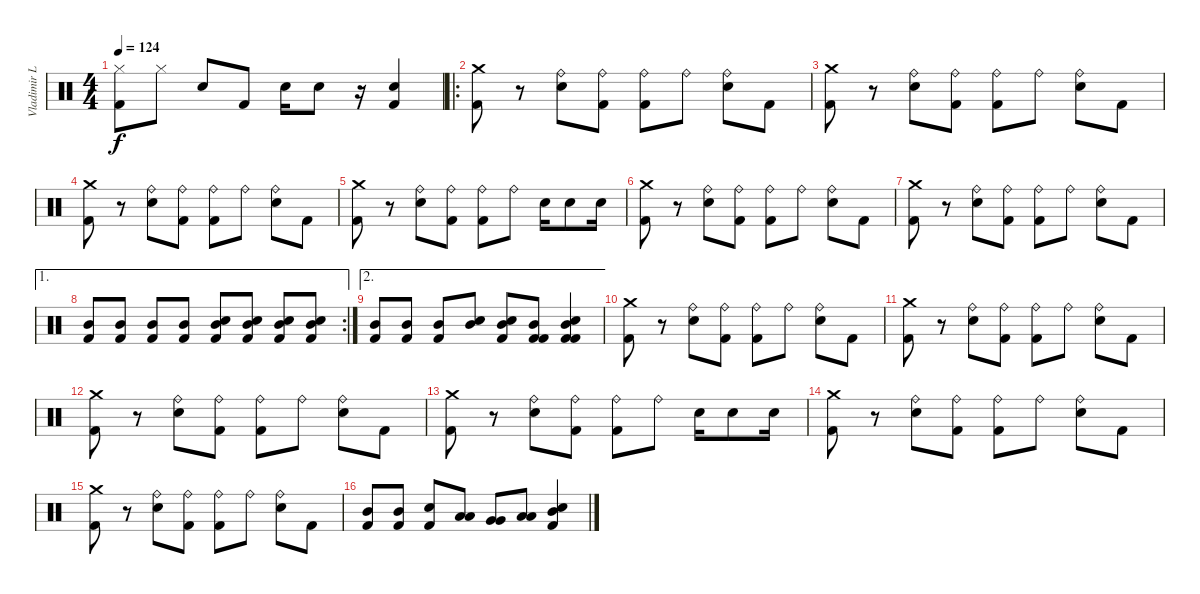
\track ("Vladimir L." "Vladimir L") {instrument percussion}
\staff {score}
\articulation defaults
\ts (4 4)
\tempo 124
\clef neutral
\ks c
("Kick (hit) 2" "Hi-Hat (closed)").8{dy f} "Hi-Hat (closed)".8 "Electric Snare (hit)".8 "Kick (hit) 2".8 "Electric Snare (hit)".16 "Electric Snare (hit)".8 r.16 ("Electric Snare (hit)" "Kick (hit) 2").4 |
\ro
("Kick (hit) 2" "Crash medium (hit)").8 r.8 ("Electric Snare (hit)" "Ride (bell)").8 ("Kick (hit) 2" "Ride (bell)").8 ("Kick (hit) 2" "Ride (bell)").8 "Ride (bell)".8 ("Electric Snare (hit)" "Ride (bell)").8 "Kick (hit) 2".8 |
("Kick (hit) 2" "Crash medium (hit)").8 r.8 ("Electric Snare (hit)" "Ride (bell)").8 ("Kick (hit) 2" "Ride (bell)").8 ("Kick (hit) 2" "Ride (bell)").8 "Ride (bell)".8 ("Electric Snare (hit)" "Ride (bell)").8 "Kick (hit) 2".8 |
("Kick (hit) 2" "Crash medium (hit)").8 r.8 ("Electric Snare (hit)" "Ride (bell)").8 ("Kick (hit) 2" "Ride (bell)").8 ("Kick (hit) 2" "Ride (bell)").8 "Ride (bell)".8 ("Electric Snare (hit)" "Ride (bell)").8 "Kick (hit) 2".8 |
("Kick (hit) 2" "Crash medium (hit)").8 r.8 ("Electric Snare (hit)" "Ride (bell)").8 ("Kick (hit) 2" "Ride (bell)").8 ("Kick (hit) 2" "Ride (bell)").8 "Ride (bell)".8 "Electric Snare (hit)".16 "Electric Snare (hit)".8 "Electric Snare (hit)".16 |
("Kick (hit) 2" "Crash medium (hit)").8 r.8 ("Electric Snare (hit)" "Ride (bell)").8 ("Kick (hit) 2" "Ride (bell)").8 ("Kick (hit) 2" "Ride (bell)").8 "Ride (bell)".8 ("Electric Snare (hit)" "Ride (bell)").8 "Kick (hit) 2".8 |
("Kick (hit) 2" "Crash medium (hit)").8 r.8 ("Electric Snare (hit)" "Ride (bell)").8 ("Kick (hit) 2" "Ride (bell)").8 ("Kick (hit) 2" "Ride (bell)").8 "Ride (bell)".8 ("Electric Snare (hit)" "Ride (bell)").8 "Kick (hit) 2".8 |
\ae 1
\rc 2
("Kick (hit) 2" "Mid Tom (hit)").8 ("Kick (hit) 2" "Mid Tom (hit)").8 ("Kick (hit) 2" "Mid Tom (hit)").8 ("Kick (hit) 2" "Mid Tom (hit)").8 ("Electric Snare (hit)" "Mid Tom (hit)" "Kick (hit) 2").8 ("Electric Snare (hit)" "Mid Tom (hit)" "Kick (hit) 2").8 ("Electric Snare (hit)" "Mid Tom (hit)" "Kick (hit) 2").8 ("Electric Snare (hit)" "Mid Tom (hit)" "Kick (hit) 2").8 |
\ae 2
("Kick (hit) 2" "Mid Tom (hit)").8 ("Kick (hit) 2" "Mid Tom (hit)").8 ("Kick (hit) 2" "Mid Tom (hit)").8 ("Electric Snare (hit)" "Mid Tom (hit)").8 ("Electric Snare (hit)" "Mid Tom (hit)" "Kick (hit) 2").8 ("Kick (hit) 2" "Mid Tom (hit)" "Kick (hit) 2").8 ("Kick (hit) 2" "Mid Tom (hit)" "Kick (hit) 2" "Electric Snare (hit)").4 |
("Kick (hit) 2" "Crash medium (hit)").8 r.8 ("Electric Snare (hit)" "Ride (bell)").8 ("Kick (hit) 2" "Ride (bell)").8 ("Kick (hit) 2" "Ride (bell)").8 "Ride (bell)".8 ("Electric Snare (hit)" "Ride (bell)").8 "Kick (hit) 2".8 |
("Kick (hit) 2" "Crash medium (hit)").8 r.8 ("Electric Snare (hit)" "Ride (bell)").8 ("Kick (hit) 2" "Ride (bell)").8 ("Kick (hit) 2" "Ride (bell)").8 "Ride (bell)".8 ("Electric Snare (hit)" "Ride (bell)").8 "Kick (hit) 2".8 |
("Kick (hit) 2" "Crash medium (hit)").8 r.8 ("Electric Snare (hit)" "Ride (bell)").8 ("Kick (hit) 2" "Ride (bell)").8 ("Kick (hit) 2" "Ride (bell)").8 "Ride (bell)".8 ("Electric Snare (hit)" "Ride (bell)").8 "Kick (hit) 2".8 |
("Kick (hit) 2" "Crash medium (hit)").8 r.8 ("Electric Snare (hit)" "Ride (bell)").8 ("Kick (hit) 2" "Ride (bell)").8 ("Kick (hit) 2" "Ride (bell)").8 "Ride (bell)".8 "Electric Snare (hit)".16 "Electric Snare (hit)".8 "Electric Snare (hit)".16 |
("Kick (hit) 2" "Crash medium (hit)").8 r.8 ("Electric Snare (hit)" "Ride (bell)").8 ("Kick (hit) 2" "Ride (bell)").8 ("Kick (hit) 2" "Ride (bell)").8 "Ride (bell)".8 ("Electric Snare (hit)" "Ride (bell)").8 "Kick (hit) 2".8 |
("Kick (hit) 2" "Crash medium (hit)").8 r.8 ("Electric Snare (hit)" "Ride (bell)").8 ("Kick (hit) 2" "Ride (bell)").8 ("Kick (hit) 2" "Ride (bell)").8 "Ride (bell)".8 ("Electric Snare (hit)" "Ride (bell)").8 "Kick (hit) 2".8 |
("Kick (hit) 2" "Mid Tom (hit)").8 ("Mid Tom (hit)" "Kick (hit) 2").8 ("Electric Snare (hit)" "Kick (hit) 2").8 ("Low Floor Tom (hit)" "Low Floor Tom (hit)").8 ("Very Low Tom (hit)" "Very Low Tom (hit)").8 ("Low Tom (hit)" "Low Tom (hit)").8 ("Electric Snare (hit)" "Kick (hit) 2" "Mid Tom (hit)").4
